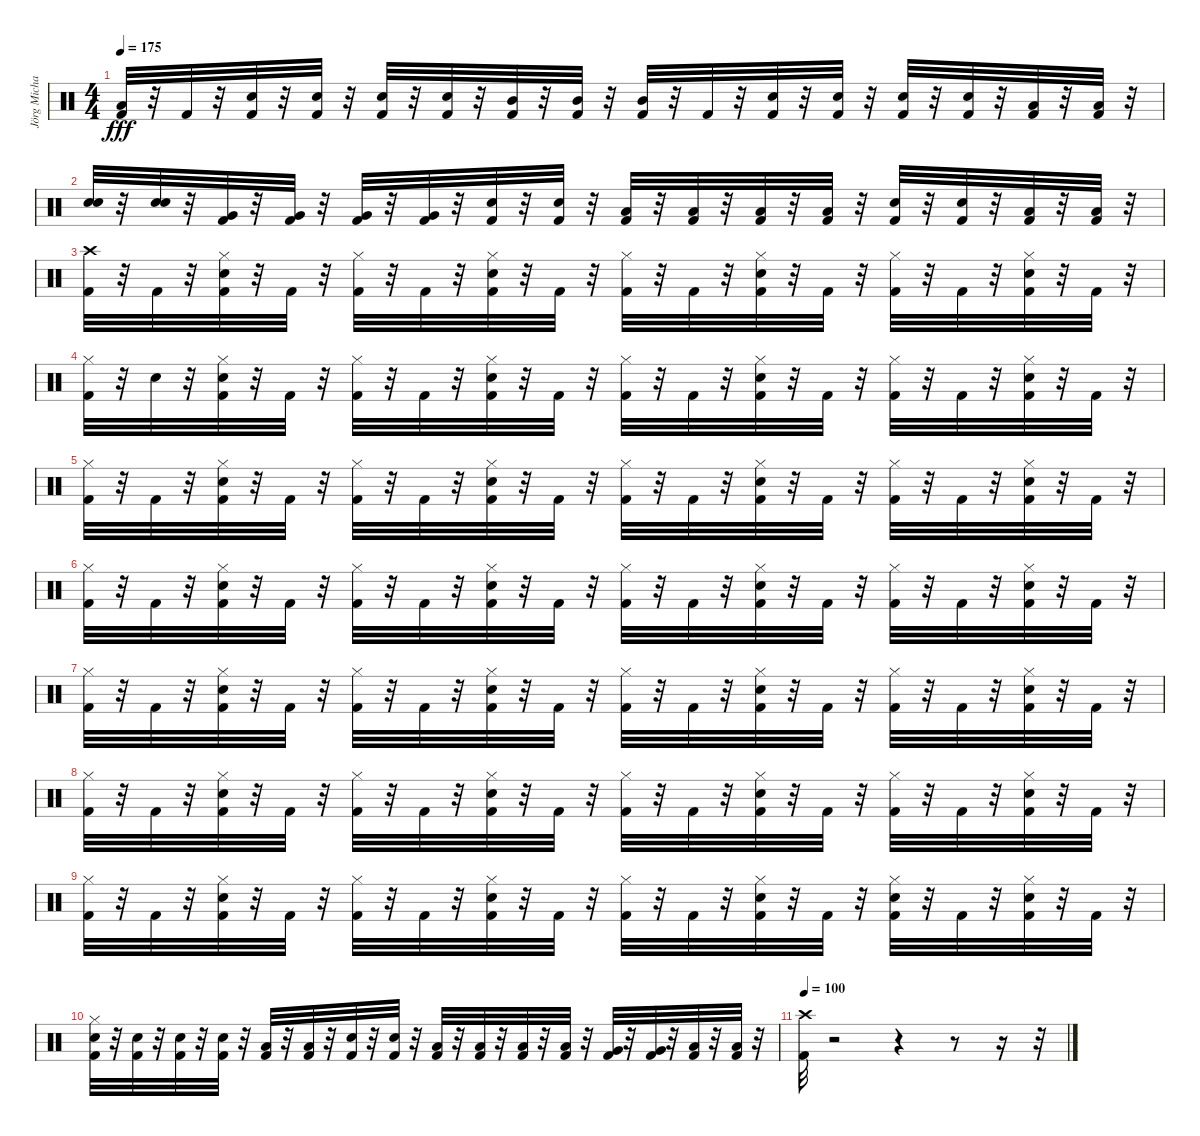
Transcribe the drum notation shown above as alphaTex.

\track ("Jörg Michael " "Jörg Micha") {instrument percussion}
\staff {score}
\articulation defaults
\ts (4 4)
\tempo 175
\clef neutral
\ks c
("Low Tom (hit)" "Kick (hit) 2").32{dy fff} r.32 "Kick (hit) 2".32 r.32 ("Snare (hit) 2" "Kick (hit) 2").32 r.32 ("Snare (hit) 2" "Kick (hit) 2").32 r.32 ("Snare (hit) 2" "Kick (hit) 2").32 r.32 ("Snare (hit) 2" "Kick (hit) 2").32 r.32 ("Kick (hit) 2" "Mid Tom (hit)").32 r.32 ("Kick (hit) 2" "Mid Tom (hit)").32 r.32 ("Kick (hit) 2" "Mid Tom (hit)").32 r.32 "Kick (hit) 2".32 r.32 ("Snare (hit) 2" "Kick (hit) 2").32 r.32 ("Snare (hit) 2" "Kick (hit) 2").32 r.32 ("Snare (hit) 2" "Kick (hit) 2").32 r.32 ("Snare (hit) 2" "Kick (hit) 2").32 r.32 ("Low Tom (hit)" "Kick (hit) 2").32 r.32 ("Low Tom (hit)" "Kick (hit) 2").32 r.32 |
("Snare (hit) 2" "Snare (hit)").32 r.32 ("Snare (hit) 2" "Snare (hit)").32 r.32 ("Kick (hit) 2" "Very Low Tom (hit)").32 r.32 ("Kick (hit) 2" "Very Low Tom (hit)").32 r.32 ("Kick (hit) 2" "Very Low Tom (hit)").32 r.32 ("Kick (hit) 2" "Very Low Tom (hit)").32 r.32 ("Snare (hit) 2" "Kick (hit) 2").32 r.32 ("Snare (hit) 2" "Kick (hit) 2").32 r.32 ("Kick (hit) 2" "Low Floor Tom (hit)").32 r.32 ("Kick (hit) 2" "Low Floor Tom (hit)").32 r.32 ("Kick (hit) 2" "Low Floor Tom (hit)").32 r.32 ("Kick (hit) 2" "Low Floor Tom (hit)").32 r.32 ("Snare (hit) 2" "Kick (hit) 2").32 r.32 ("Snare (hit) 2" "Kick (hit) 2").32 r.32 ("Kick (hit) 2" "Low Floor Tom (hit)").32 r.32 ("Kick (hit) 2" "Low Floor Tom (hit)").32 r.32 |
("Crash high (hit)" "Kick (hit) 2").32 r.32 "Kick (hit) 2".32 r.32 ("Hi-Hat (closed)" "Snare (hit) 2" "Kick (hit) 2").32 r.32 "Kick (hit) 2".32 r.32 ("Hi-Hat (closed)" "Kick (hit) 2").32 r.32 "Kick (hit) 2".32 r.32 ("Hi-Hat (closed)" "Snare (hit) 2" "Kick (hit) 2").32 r.32 "Kick (hit) 2".32 r.32 ("Hi-Hat (closed)" "Kick (hit) 2").32 r.32 "Kick (hit) 2".32 r.32 ("Hi-Hat (closed)" "Snare (hit) 2" "Kick (hit) 2").32 r.32 "Kick (hit) 2".32 r.32 ("Hi-Hat (closed)" "Kick (hit) 2").32 r.32 "Kick (hit) 2".32 r.32 ("Hi-Hat (closed)" "Snare (hit) 2" "Kick (hit) 2").32 r.32 "Kick (hit) 2".32 r.32 |
("Hi-Hat (closed)" "Kick (hit) 2").32 r.32 "Snare (hit) 2".32 r.32 ("Hi-Hat (closed)" "Snare (hit) 2" "Kick (hit) 2").32 r.32 "Kick (hit) 2".32 r.32 ("Hi-Hat (closed)" "Kick (hit) 2").32 r.32 "Kick (hit) 2".32 r.32 ("Hi-Hat (closed)" "Snare (hit) 2" "Kick (hit) 2").32 r.32 "Kick (hit) 2".32 r.32 ("Hi-Hat (closed)" "Kick (hit) 2").32 r.32 "Kick (hit) 2".32 r.32 ("Hi-Hat (closed)" "Snare (hit) 2" "Kick (hit) 2").32 r.32 "Kick (hit) 2".32 r.32 ("Hi-Hat (closed)" "Kick (hit) 2").32 r.32 "Kick (hit) 2".32 r.32 ("Hi-Hat (closed)" "Snare (hit) 2" "Kick (hit) 2").32 r.32 "Kick (hit) 2".32 r.32 |
("Hi-Hat (closed)" "Kick (hit) 2").32 r.32 "Kick (hit) 2".32 r.32 ("Hi-Hat (closed)" "Snare (hit) 2" "Kick (hit) 2").32 r.32 "Kick (hit) 2".32 r.32 ("Hi-Hat (closed)" "Kick (hit) 2").32 r.32 "Kick (hit) 2".32 r.32 ("Hi-Hat (closed)" "Snare (hit) 2" "Kick (hit) 2").32 r.32 "Kick (hit) 2".32 r.32 ("Hi-Hat (closed)" "Kick (hit) 2").32 r.32 "Kick (hit) 2".32 r.32 ("Hi-Hat (closed)" "Snare (hit) 2" "Kick (hit) 2").32 r.32 "Kick (hit) 2".32 r.32 ("Hi-Hat (closed)" "Kick (hit) 2").32 r.32 "Kick (hit) 2".32 r.32 ("Hi-Hat (closed)" "Snare (hit) 2" "Kick (hit) 2").32 r.32 "Kick (hit) 2".32 r.32 |
("Hi-Hat (closed)" "Kick (hit) 2").32 r.32 "Kick (hit) 2".32 r.32 ("Hi-Hat (closed)" "Snare (hit) 2" "Kick (hit) 2").32 r.32 "Kick (hit) 2".32 r.32 ("Hi-Hat (closed)" "Kick (hit) 2").32 r.32 "Kick (hit) 2".32 r.32 ("Hi-Hat (closed)" "Snare (hit) 2" "Kick (hit) 2").32 r.32 "Kick (hit) 2".32 r.32 ("Hi-Hat (closed)" "Kick (hit) 2").32 r.32 "Kick (hit) 2".32 r.32 ("Hi-Hat (closed)" "Snare (hit) 2" "Kick (hit) 2").32 r.32 "Kick (hit) 2".32 r.32 ("Hi-Hat (closed)" "Kick (hit) 2").32 r.32 "Kick (hit) 2".32 r.32 ("Hi-Hat (closed)" "Snare (hit) 2" "Kick (hit) 2").32 r.32 "Kick (hit) 2".32 r.32 |
("Hi-Hat (closed)" "Kick (hit) 2").32 r.32 "Kick (hit) 2".32 r.32 ("Hi-Hat (closed)" "Snare (hit) 2" "Kick (hit) 2").32 r.32 "Kick (hit) 2".32 r.32 ("Hi-Hat (closed)" "Kick (hit) 2").32 r.32 "Kick (hit) 2".32 r.32 ("Hi-Hat (closed)" "Snare (hit) 2" "Kick (hit) 2").32 r.32 "Kick (hit) 2".32 r.32 ("Hi-Hat (closed)" "Kick (hit) 2").32 r.32 "Kick (hit) 2".32 r.32 ("Hi-Hat (closed)" "Snare (hit) 2" "Kick (hit) 2").32 r.32 "Kick (hit) 2".32 r.32 ("Hi-Hat (closed)" "Kick (hit) 2").32 r.32 "Kick (hit) 2".32 r.32 ("Hi-Hat (closed)" "Snare (hit) 2" "Kick (hit) 2").32 r.32 "Kick (hit) 2".32 r.32 |
("Hi-Hat (closed)" "Kick (hit) 2").32 r.32 "Kick (hit) 2".32 r.32 ("Hi-Hat (closed)" "Snare (hit) 2" "Kick (hit) 2").32 r.32 "Kick (hit) 2".32 r.32 ("Hi-Hat (closed)" "Kick (hit) 2").32 r.32 "Kick (hit) 2".32 r.32 ("Hi-Hat (closed)" "Snare (hit) 2" "Kick (hit) 2").32 r.32 "Kick (hit) 2".32 r.32 ("Hi-Hat (closed)" "Kick (hit) 2").32 r.32 "Kick (hit) 2".32 r.32 ("Hi-Hat (closed)" "Snare (hit) 2" "Kick (hit) 2").32 r.32 "Kick (hit) 2".32 r.32 ("Hi-Hat (closed)" "Kick (hit) 2").32 r.32 "Kick (hit) 2".32 r.32 ("Hi-Hat (closed)" "Snare (hit) 2" "Kick (hit) 2").32 r.32 "Kick (hit) 2".32 r.32 |
("Hi-Hat (closed)" "Kick (hit) 2").32 r.32 "Kick (hit) 2".32 r.32 ("Hi-Hat (closed)" "Snare (hit) 2" "Kick (hit) 2").32 r.32 "Kick (hit) 2".32 r.32 ("Hi-Hat (closed)" "Kick (hit) 2").32 r.32 "Kick (hit) 2".32 r.32 ("Hi-Hat (closed)" "Snare (hit) 2" "Kick (hit) 2").32 r.32 "Kick (hit) 2".32 r.32 ("Hi-Hat (closed)" "Kick (hit) 2").32 r.32 "Kick (hit) 2".32 r.32 ("Hi-Hat (closed)" "Snare (hit) 2" "Kick (hit) 2").32 r.32 "Kick (hit) 2".32 r.32 ("Hi-Hat (closed)" "Snare (hit) 2" "Kick (hit) 2").32 r.32 "Kick (hit) 2".32 r.32 ("Hi-Hat (closed)" "Snare (hit) 2" "Kick (hit) 2").32 r.32 "Kick (hit) 2".32 r.32 |
("Hi-Hat (closed)" "Snare (hit) 2" "Kick (hit) 2").32 r.32 ("Snare (hit) 2" "Kick (hit) 2").32 r.32 ("Snare (hit) 2" "Kick (hit) 2").32 r.32 ("Snare (hit) 2" "Kick (hit) 2").32 r.32 ("Low Tom (hit)" "Kick (hit) 2").32 r.32 ("Low Tom (hit)" "Kick (hit) 2").32 r.32 ("Snare (hit) 2" "Kick (hit) 2").32 r.32 ("Snare (hit) 2" "Kick (hit) 2").32 r.32 ("Low Tom (hit)" "Kick (hit) 2").32 r.32 ("Low Tom (hit)" "Kick (hit) 2").32 r.32 ("Low Tom (hit)" "Kick (hit) 2").32 r.32 ("Low Tom (hit)" "Kick (hit) 2").32 r.32 ("Very Low Tom (hit)" "Kick (hit) 2").32 r.32 ("Very Low Tom (hit)" "Kick (hit) 2").32 r.32 ("Low Floor Tom (hit)" "Kick (hit) 2").32 r.32 ("Low Floor Tom (hit)" "Kick (hit) 2").32 r.32 |
\tempo 100
("Crash high (hit)" "Kick (hit) 2").32 r.2 r.4 r.8 r.16 r.32
